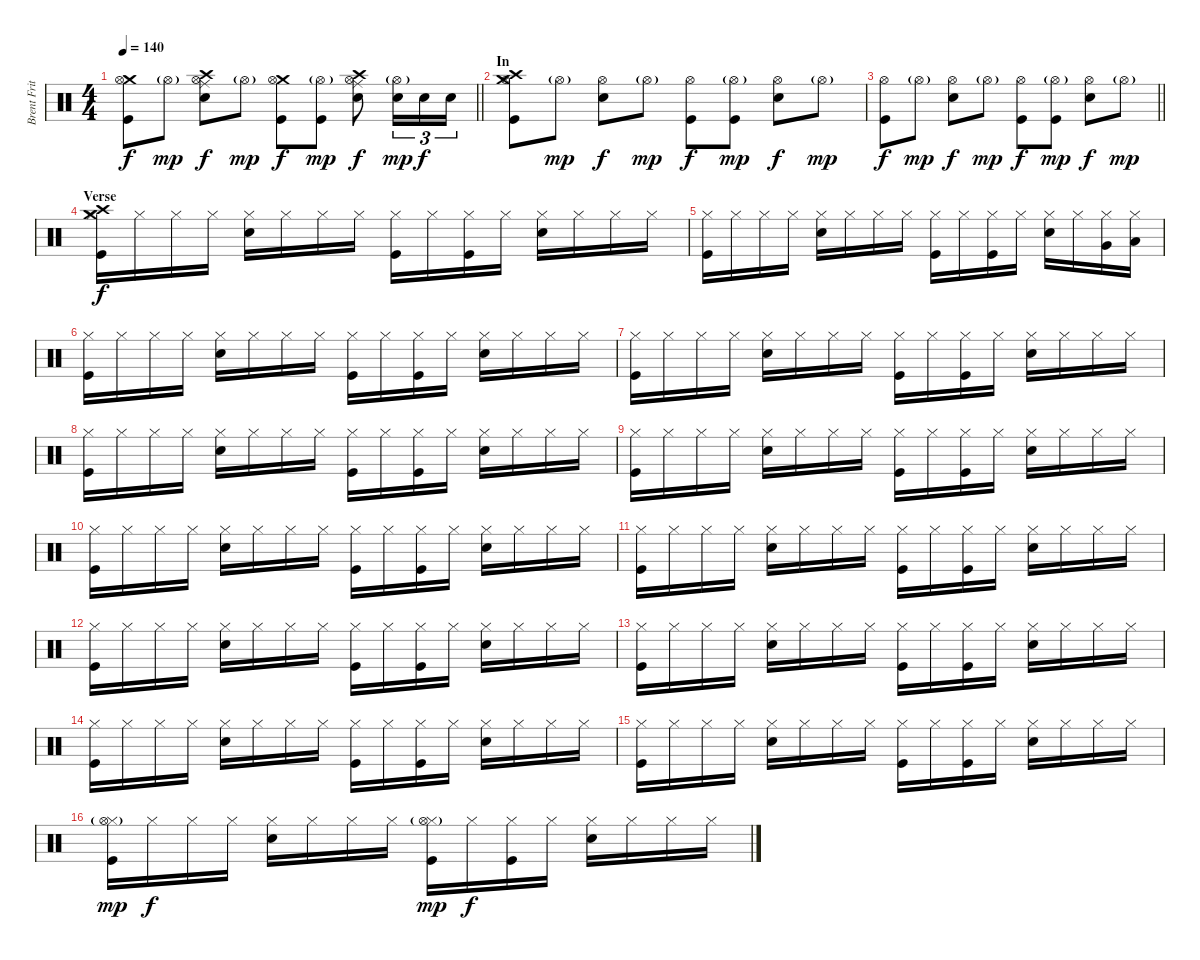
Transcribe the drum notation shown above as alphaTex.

\track ("Brent Fritz" "Brent Frit") {instrument percussion}
\staff {score}
\articulation defaults
\ts (4 4)
\tempo 140
\clef neutral
\barLineRight lightlight
\ks c
("Crash medium (hit)" "Hi-Hat (open)" "Kick (hit)").8{dy f} "Hi-Hat (open)"{g}.8{dy mp} ("Crash high (hit)" "Ride (middle)" "Hi-Hat (open)" "Electric Snare (hit)").8{dy f} "Hi-Hat (open)"{g}.8{dy mp} ("Crash medium (hit)" "Hi-Hat (open)" "Kick (hit)").8{dy f} ("Hi-Hat (open)"{g} "Kick (hit)").8{dy mp} ("Crash high (hit)" "Ride (middle)" "Hi-Hat (open)" "Electric Snare (hit)").8{dy f} ("Hi-Hat (open)"{g} "Electric Snare (hit)").16{tu (3 2) dy mp} "Electric Snare (hit)".16{tu (3 2) dy f} "Electric Snare (hit)".16{tu (3 2)} |
\section ("" "In")
("Crash high (hit)" "Crash medium (hit)" "Hi-Hat (open)" "Kick (hit)").8 "Hi-Hat (open)"{g}.8{dy mp} ("Hi-Hat (open)" "Electric Snare (hit)").8{dy f} "Hi-Hat (open)"{g}.8{dy mp} ("Hi-Hat (open)" "Kick (hit)").8{dy f} ("Hi-Hat (open)"{g} "Kick (hit)").8{dy mp} ("Hi-Hat (open)" "Electric Snare (hit)").8{dy f} "Hi-Hat (open)"{g}.8{dy mp} |
\barLineRight lightlight
("Hi-Hat (open)" "Kick (hit)").8{dy f} "Hi-Hat (open)"{g}.8{dy mp} ("Hi-Hat (open)" "Electric Snare (hit)").8{dy f} "Hi-Hat (open)"{g}.8{dy mp} ("Hi-Hat (open)" "Kick (hit)").8{dy f} ("Hi-Hat (open)"{g} "Kick (hit)").8{dy mp} ("Hi-Hat (open)" "Electric Snare (hit)").8{dy f} "Hi-Hat (open)"{g}.8{dy mp} |
\section ("" "Verse")
("Crash medium (hit)" "Crash high (hit)" "Hi-Hat (closed)" "Kick (hit)").16{dy f} "Hi-Hat (closed)".16 "Hi-Hat (closed)".16 "Hi-Hat (closed)".16 ("Hi-Hat (closed)" "Electric Snare (hit)").16 "Hi-Hat (closed)".16 "Hi-Hat (closed)".16 "Hi-Hat (closed)".16 ("Hi-Hat (closed)" "Kick (hit)").16 "Hi-Hat (closed)".16 ("Hi-Hat (closed)" "Kick (hit)").16 "Hi-Hat (closed)".16 ("Hi-Hat (closed)" "Electric Snare (hit)").16 "Hi-Hat (closed)".16 "Hi-Hat (closed)".16 "Hi-Hat (closed)".16 |
("Hi-Hat (closed)" "Kick (hit)").16 "Hi-Hat (closed)".16 "Hi-Hat (closed)".16 "Hi-Hat (closed)".16 ("Hi-Hat (closed)" "Electric Snare (hit)").16 "Hi-Hat (closed)".16 "Hi-Hat (closed)".16 "Hi-Hat (closed)".16 ("Hi-Hat (closed)" "Kick (hit)").16 "Hi-Hat (closed)".16 ("Hi-Hat (closed)" "Kick (hit)").16 "Hi-Hat (closed)".16 ("Hi-Hat (closed)" "Electric Snare (hit)").16 "Hi-Hat (closed)".16 ("Hi-Hat (closed)" "Very Low Tom (hit)").16 ("Hi-Hat (closed)" "Low Floor Tom (hit)").16 |
("Hi-Hat (closed)" "Kick (hit)").16 "Hi-Hat (closed)".16 "Hi-Hat (closed)".16 "Hi-Hat (closed)".16 ("Hi-Hat (closed)" "Electric Snare (hit)").16 "Hi-Hat (closed)".16 "Hi-Hat (closed)".16 "Hi-Hat (closed)".16 ("Hi-Hat (closed)" "Kick (hit)").16 "Hi-Hat (closed)".16 ("Hi-Hat (closed)" "Kick (hit)").16 "Hi-Hat (closed)".16 ("Hi-Hat (closed)" "Electric Snare (hit)").16 "Hi-Hat (closed)".16 "Hi-Hat (closed)".16 "Hi-Hat (closed)".16 |
("Hi-Hat (closed)" "Kick (hit)").16 "Hi-Hat (closed)".16 "Hi-Hat (closed)".16 "Hi-Hat (closed)".16 ("Hi-Hat (closed)" "Electric Snare (hit)").16 "Hi-Hat (closed)".16 "Hi-Hat (closed)".16 "Hi-Hat (closed)".16 ("Hi-Hat (closed)" "Kick (hit)").16 "Hi-Hat (closed)".16 ("Hi-Hat (closed)" "Kick (hit)").16 "Hi-Hat (closed)".16 ("Hi-Hat (closed)" "Electric Snare (hit)").16 "Hi-Hat (closed)".16 "Hi-Hat (closed)".16 "Hi-Hat (closed)".16 |
("Hi-Hat (closed)" "Kick (hit)").16 "Hi-Hat (closed)".16 "Hi-Hat (closed)".16 "Hi-Hat (closed)".16 ("Hi-Hat (closed)" "Electric Snare (hit)").16 "Hi-Hat (closed)".16 "Hi-Hat (closed)".16 "Hi-Hat (closed)".16 ("Hi-Hat (closed)" "Kick (hit)").16 "Hi-Hat (closed)".16 ("Hi-Hat (closed)" "Kick (hit)").16 "Hi-Hat (closed)".16 ("Hi-Hat (closed)" "Electric Snare (hit)").16 "Hi-Hat (closed)".16 "Hi-Hat (closed)".16 "Hi-Hat (closed)".16 |
("Hi-Hat (closed)" "Kick (hit)").16 "Hi-Hat (closed)".16 "Hi-Hat (closed)".16 "Hi-Hat (closed)".16 ("Hi-Hat (closed)" "Electric Snare (hit)").16 "Hi-Hat (closed)".16 "Hi-Hat (closed)".16 "Hi-Hat (closed)".16 ("Hi-Hat (closed)" "Kick (hit)").16 "Hi-Hat (closed)".16 ("Hi-Hat (closed)" "Kick (hit)").16 "Hi-Hat (closed)".16 ("Hi-Hat (closed)" "Electric Snare (hit)").16 "Hi-Hat (closed)".16 "Hi-Hat (closed)".16 "Hi-Hat (closed)".16 |
("Hi-Hat (closed)" "Kick (hit)").16 "Hi-Hat (closed)".16 "Hi-Hat (closed)".16 "Hi-Hat (closed)".16 ("Hi-Hat (closed)" "Electric Snare (hit)").16 "Hi-Hat (closed)".16 "Hi-Hat (closed)".16 "Hi-Hat (closed)".16 ("Hi-Hat (closed)" "Kick (hit)").16 "Hi-Hat (closed)".16 ("Hi-Hat (closed)" "Kick (hit)").16 "Hi-Hat (closed)".16 ("Hi-Hat (closed)" "Electric Snare (hit)").16 "Hi-Hat (closed)".16 "Hi-Hat (closed)".16 "Hi-Hat (closed)".16 |
("Hi-Hat (closed)" "Kick (hit)").16 "Hi-Hat (closed)".16 "Hi-Hat (closed)".16 "Hi-Hat (closed)".16 ("Hi-Hat (closed)" "Electric Snare (hit)").16 "Hi-Hat (closed)".16 "Hi-Hat (closed)".16 "Hi-Hat (closed)".16 ("Hi-Hat (closed)" "Kick (hit)").16 "Hi-Hat (closed)".16 ("Hi-Hat (closed)" "Kick (hit)").16 "Hi-Hat (closed)".16 ("Hi-Hat (closed)" "Electric Snare (hit)").16 "Hi-Hat (closed)".16 "Hi-Hat (closed)".16 "Hi-Hat (closed)".16 |
("Hi-Hat (closed)" "Kick (hit)").16 "Hi-Hat (closed)".16 "Hi-Hat (closed)".16 "Hi-Hat (closed)".16 ("Hi-Hat (closed)" "Electric Snare (hit)").16 "Hi-Hat (closed)".16 "Hi-Hat (closed)".16 "Hi-Hat (closed)".16 ("Hi-Hat (closed)" "Kick (hit)").16 "Hi-Hat (closed)".16 ("Hi-Hat (closed)" "Kick (hit)").16 "Hi-Hat (closed)".16 ("Hi-Hat (closed)" "Electric Snare (hit)").16 "Hi-Hat (closed)".16 "Hi-Hat (closed)".16 "Hi-Hat (closed)".16 |
("Hi-Hat (closed)" "Kick (hit)").16 "Hi-Hat (closed)".16 "Hi-Hat (closed)".16 "Hi-Hat (closed)".16 ("Hi-Hat (closed)" "Electric Snare (hit)").16 "Hi-Hat (closed)".16 "Hi-Hat (closed)".16 "Hi-Hat (closed)".16 ("Hi-Hat (closed)" "Kick (hit)").16 "Hi-Hat (closed)".16 ("Hi-Hat (closed)" "Kick (hit)").16 "Hi-Hat (closed)".16 ("Hi-Hat (closed)" "Electric Snare (hit)").16 "Hi-Hat (closed)".16 "Hi-Hat (closed)".16 "Hi-Hat (closed)".16 |
("Hi-Hat (closed)" "Kick (hit)").16 "Hi-Hat (closed)".16 "Hi-Hat (closed)".16 "Hi-Hat (closed)".16 ("Hi-Hat (closed)" "Electric Snare (hit)").16 "Hi-Hat (closed)".16 "Hi-Hat (closed)".16 "Hi-Hat (closed)".16 ("Hi-Hat (closed)" "Kick (hit)").16 "Hi-Hat (closed)".16 ("Hi-Hat (closed)" "Kick (hit)").16 "Hi-Hat (closed)".16 ("Hi-Hat (closed)" "Electric Snare (hit)").16 "Hi-Hat (closed)".16 "Hi-Hat (closed)".16 "Hi-Hat (closed)".16 |
("Hi-Hat (closed)" "Kick (hit)").16 "Hi-Hat (closed)".16 "Hi-Hat (closed)".16 "Hi-Hat (closed)".16 ("Hi-Hat (closed)" "Electric Snare (hit)").16 "Hi-Hat (closed)".16 "Hi-Hat (closed)".16 "Hi-Hat (closed)".16 ("Hi-Hat (closed)" "Kick (hit)").16 "Hi-Hat (closed)".16 ("Hi-Hat (closed)" "Kick (hit)").16 "Hi-Hat (closed)".16 ("Hi-Hat (closed)" "Electric Snare (hit)").16 "Hi-Hat (closed)".16 "Hi-Hat (closed)".16 "Hi-Hat (closed)".16 |
("Hi-Hat (closed)" "Hi-Hat (open)"{g} "Kick (hit)").16{dy mp} "Hi-Hat (closed)".16{dy f} "Hi-Hat (closed)".16 "Hi-Hat (closed)".16 ("Hi-Hat (closed)" "Electric Snare (hit)").16 "Hi-Hat (closed)".16 "Hi-Hat (closed)".16 "Hi-Hat (closed)".16 ("Hi-Hat (closed)" "Hi-Hat (open)"{g} "Kick (hit)").16{dy mp} "Hi-Hat (closed)".16{dy f} ("Hi-Hat (closed)" "Kick (hit)").16 "Hi-Hat (closed)".16 ("Hi-Hat (closed)" "Electric Snare (hit)").16 "Hi-Hat (closed)".16 "Hi-Hat (closed)".16 "Hi-Hat (closed)".16
